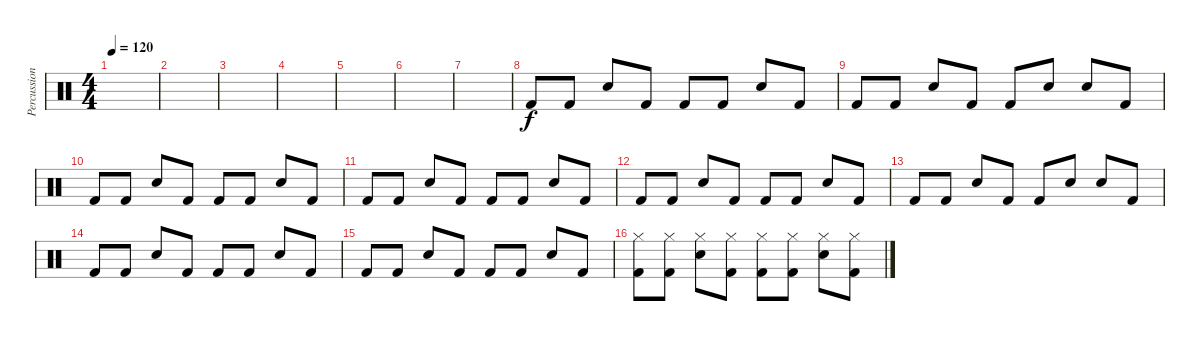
\track ("Percussion" "Percussion") {instrument percussion}
\staff {score}
\articulation defaults
\ts (4 4)
\tempo 120
\clef neutral
\ks c
|
|
|
|
|
|
|
"Kick (hit) 2".8 "Kick (hit) 2".8 "Electric Snare (hit)".8 "Kick (hit) 2".8 "Kick (hit) 2".8 "Kick (hit) 2".8 "Electric Snare (hit)".8 "Kick (hit) 2".8 |
"Kick (hit) 2".8 "Kick (hit) 2".8 "Electric Snare (hit)".8 "Kick (hit) 2".8 "Kick (hit) 2".8 "Electric Snare (hit)".8 "Electric Snare (hit)".8 "Kick (hit) 2".8 |
"Kick (hit) 2".8 "Kick (hit) 2".8 "Electric Snare (hit)".8 "Kick (hit) 2".8 "Kick (hit) 2".8 "Kick (hit) 2".8 "Electric Snare (hit)".8 "Kick (hit) 2".8 |
"Kick (hit) 2".8 "Kick (hit) 2".8 "Electric Snare (hit)".8 "Kick (hit) 2".8 "Kick (hit) 2".8 "Kick (hit) 2".8 "Electric Snare (hit)".8 "Kick (hit) 2".8 |
"Kick (hit) 2".8 "Kick (hit) 2".8 "Electric Snare (hit)".8 "Kick (hit) 2".8 "Kick (hit) 2".8 "Kick (hit) 2".8 "Electric Snare (hit)".8 "Kick (hit) 2".8 |
"Kick (hit) 2".8 "Kick (hit) 2".8 "Electric Snare (hit)".8 "Kick (hit) 2".8 "Kick (hit) 2".8 "Electric Snare (hit)".8 "Electric Snare (hit)".8 "Kick (hit) 2".8 |
"Kick (hit) 2".8 "Kick (hit) 2".8 "Electric Snare (hit)".8 "Kick (hit) 2".8 "Kick (hit) 2".8 "Kick (hit) 2".8 "Electric Snare (hit)".8 "Kick (hit) 2".8 |
"Kick (hit) 2".8 "Kick (hit) 2".8 "Electric Snare (hit)".8 "Kick (hit) 2".8 "Kick (hit) 2".8 "Kick (hit) 2".8 "Electric Snare (hit)".8 "Kick (hit) 2".8 |
("Hi-Hat (closed)" "Kick (hit) 2").8 ("Hi-Hat (closed)" "Kick (hit) 2").8 ("Hi-Hat (closed)" "Electric Snare (hit)").8 ("Hi-Hat (closed)" "Kick (hit) 2").8 ("Hi-Hat (closed)" "Kick (hit) 2").8 ("Hi-Hat (closed)" "Kick (hit) 2").8 ("Hi-Hat (closed)" "Electric Snare (hit)").8 ("Hi-Hat (closed)" "Kick (hit) 2").8
